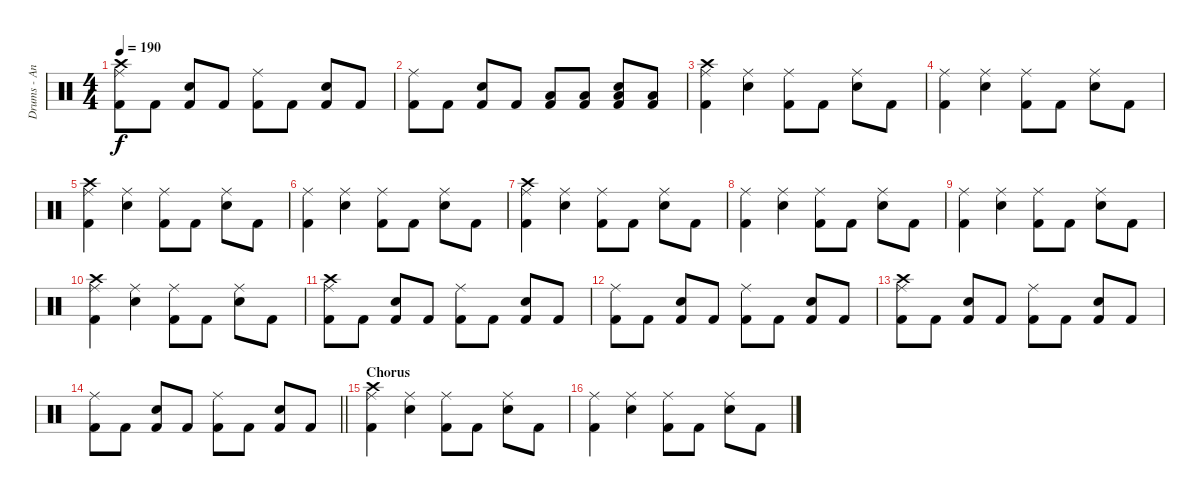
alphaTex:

\track ("Drums - Anders Johansson" "Drums - An") {instrument percussion}
\staff {score}
\articulation defaults
\ts (4 4)
\tempo 190
\clef neutral
\ks c
("Ride (middle)" "Kick (hit) 2" "Crash high (hit)").8{dy f} "Kick (hit) 2".8 ("Snare (hit) 2" "Kick (hit) 2").8 "Kick (hit) 2".8 ("Ride (middle)" "Kick (hit) 2").8 "Kick (hit) 2".8 ("Snare (hit) 2" "Kick (hit) 2").8 "Kick (hit) 2".8 |
("Ride (middle)" "Kick (hit) 2").8 "Kick (hit) 2".8 ("Snare (hit) 2" "Kick (hit) 2").8 "Kick (hit) 2".8 ("Low Floor Tom (hit)" "Kick (hit) 2").8 ("Low Floor Tom (hit)" "Kick (hit) 2").8 ("Low Floor Tom (hit)" "Snare (hit) 2" "Kick (hit) 2").8 ("Low Floor Tom (hit)" "Kick (hit) 2").8 |
("Ride (middle)" "Kick (hit) 2" "Crash high (hit)").4 ("Ride (middle)" "Snare (hit) 2").4 ("Ride (middle)" "Kick (hit) 2").8 "Kick (hit) 2".8 ("Ride (middle)" "Snare (hit) 2").8 "Kick (hit) 2".8 |
("Ride (middle)" "Kick (hit) 2").4 ("Ride (middle)" "Snare (hit) 2").4 ("Ride (middle)" "Kick (hit) 2").8 "Kick (hit) 2".8 ("Ride (middle)" "Snare (hit) 2").8 "Kick (hit) 2".8 |
("Ride (middle)" "Kick (hit) 2" "Crash high (hit)").4 ("Ride (middle)" "Snare (hit) 2").4 ("Ride (middle)" "Kick (hit) 2").8 "Kick (hit) 2".8 ("Ride (middle)" "Snare (hit) 2").8 "Kick (hit) 2".8 |
("Ride (middle)" "Kick (hit) 2").4 ("Ride (middle)" "Snare (hit) 2").4 ("Ride (middle)" "Kick (hit) 2").8 "Kick (hit) 2".8 ("Ride (middle)" "Snare (hit) 2").8 "Kick (hit) 2".8 |
("Ride (middle)" "Kick (hit) 2" "Crash high (hit)").4 ("Ride (middle)" "Snare (hit) 2").4 ("Ride (middle)" "Kick (hit) 2").8 "Kick (hit) 2".8 ("Ride (middle)" "Snare (hit) 2").8 "Kick (hit) 2".8 |
("Ride (middle)" "Kick (hit) 2").4 ("Ride (middle)" "Snare (hit) 2").4 ("Ride (middle)" "Kick (hit) 2").8 "Kick (hit) 2".8 ("Ride (middle)" "Snare (hit) 2").8 "Kick (hit) 2".8 |
("Ride (middle)" "Kick (hit) 2").4 ("Ride (middle)" "Snare (hit) 2").4 ("Ride (middle)" "Kick (hit) 2").8 "Kick (hit) 2".8 ("Ride (middle)" "Snare (hit) 2").8 "Kick (hit) 2".8 |
("Ride (middle)" "Kick (hit) 2" "Crash high (hit)").4 ("Ride (middle)" "Snare (hit) 2").4 ("Ride (middle)" "Kick (hit) 2").8 "Kick (hit) 2".8 ("Ride (middle)" "Snare (hit) 2").8 "Kick (hit) 2".8 |
("Ride (middle)" "Kick (hit) 2" "Crash high (hit)").8 "Kick (hit) 2".8 ("Snare (hit) 2" "Kick (hit) 2").8 "Kick (hit) 2".8 ("Ride (middle)" "Kick (hit) 2").8 "Kick (hit) 2".8 ("Snare (hit) 2" "Kick (hit) 2").8 "Kick (hit) 2".8 |
("Ride (middle)" "Kick (hit) 2").8 "Kick (hit) 2".8 ("Snare (hit) 2" "Kick (hit) 2").8 "Kick (hit) 2".8 ("Ride (middle)" "Kick (hit) 2").8 "Kick (hit) 2".8 ("Snare (hit) 2" "Kick (hit) 2").8 "Kick (hit) 2".8 |
("Ride (middle)" "Kick (hit) 2" "Crash high (hit)").8 "Kick (hit) 2".8 ("Snare (hit) 2" "Kick (hit) 2").8 "Kick (hit) 2".8 ("Ride (middle)" "Kick (hit) 2").8 "Kick (hit) 2".8 ("Snare (hit) 2" "Kick (hit) 2").8 "Kick (hit) 2".8 |
\barLineRight lightlight
("Ride (middle)" "Kick (hit) 2").8 "Kick (hit) 2".8 ("Snare (hit) 2" "Kick (hit) 2").8 "Kick (hit) 2".8 ("Ride (middle)" "Kick (hit) 2").8 "Kick (hit) 2".8 ("Snare (hit) 2" "Kick (hit) 2").8 "Kick (hit) 2".8 |
\section ("" "Chorus")
("Ride (middle)" "Kick (hit) 2" "Crash high (hit)").4 ("Ride (middle)" "Snare (hit) 2").4 ("Ride (middle)" "Kick (hit) 2").8 "Kick (hit) 2".8 ("Ride (middle)" "Snare (hit) 2").8 "Kick (hit) 2".8 |
("Ride (middle)" "Kick (hit) 2").4 ("Ride (middle)" "Snare (hit) 2").4 ("Ride (middle)" "Kick (hit) 2").8 "Kick (hit) 2".8 ("Ride (middle)" "Snare (hit) 2").8 "Kick (hit) 2".8
